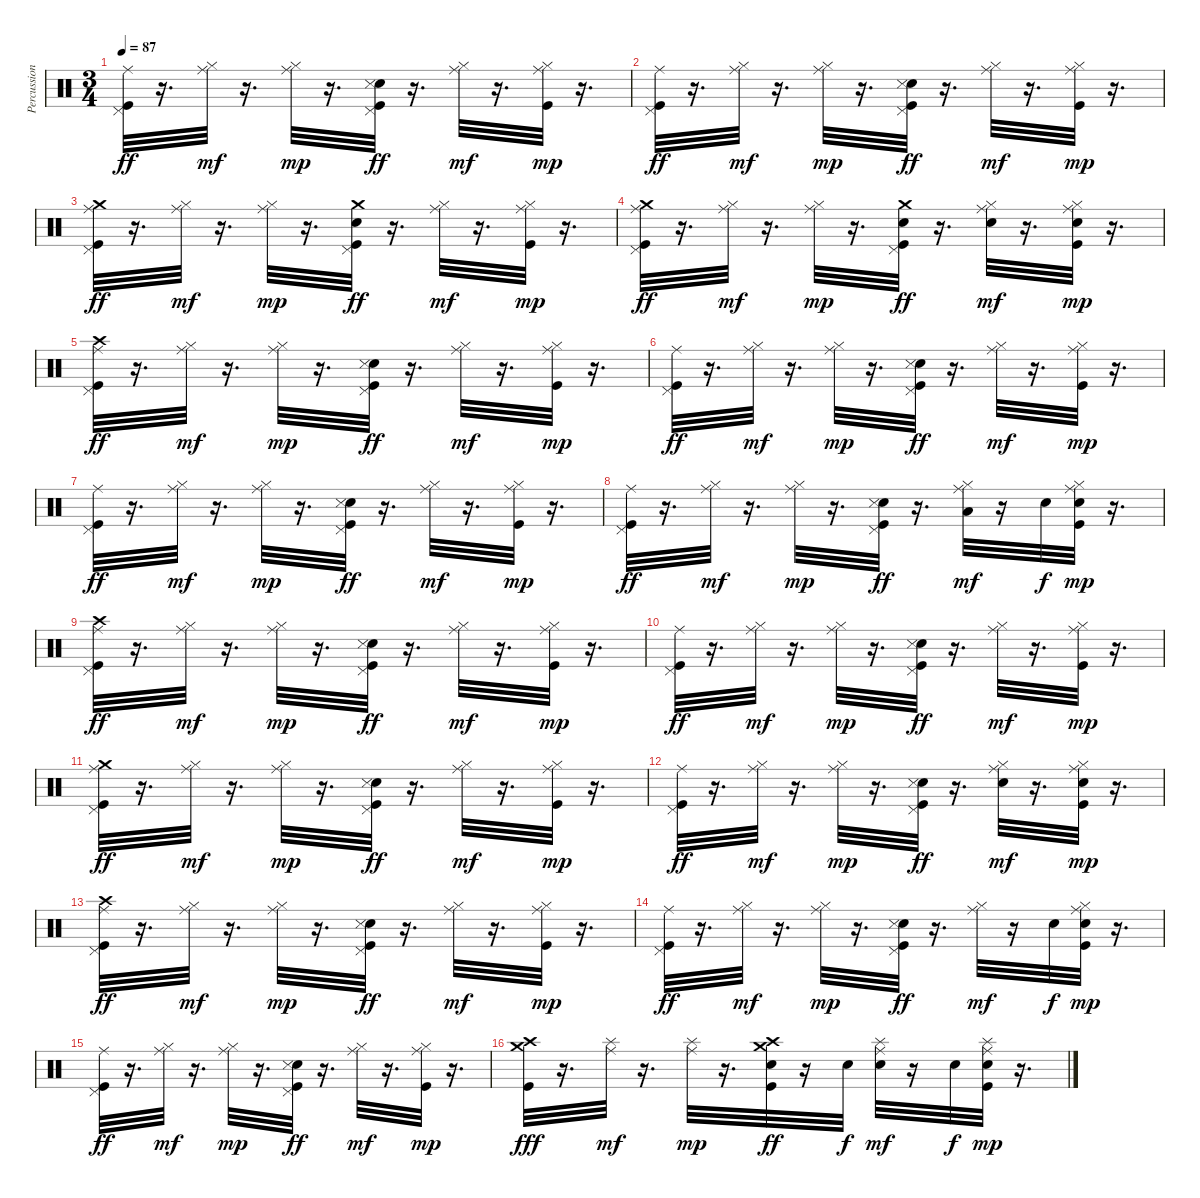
\track ("Percussion" "Percussion") {instrument percussion}
\staff {score}
\articulation defaults
\ts (3 4)
\tempo 87
\clef neutral
\ks c
("Kick (hit)" "Ride (middle)" "Pedal Hi-Hat (hit)").32{dy ff} r.16{d} ("Hi-Hat (closed)" "Ride (middle)").32{dy mf} r.16{d} ("Hi-Hat (closed)" "Ride (middle)").32{dy mp} r.16{d} ("Kick (hit)" "Pedal Hi-Hat (hit)" "Electric Snare (hit)" "Snare (side stick) 3").32{dy ff} r.16{d} ("Hi-Hat (closed)" "Ride (middle)").32{dy mf} r.16{d} ("Hi-Hat (closed)" "Ride (middle)" "Kick (hit)").32{dy mp} r.16{d} |
("Kick (hit)" "Ride (middle)" "Pedal Hi-Hat (hit)").32{dy ff} r.16{d} ("Hi-Hat (closed)" "Ride (middle)").32{dy mf} r.16{d} ("Hi-Hat (closed)" "Ride (middle)").32{dy mp} r.16{d} ("Kick (hit)" "Pedal Hi-Hat (hit)" "Electric Snare (hit)" "Snare (side stick) 3").32{dy ff} r.16{d} ("Hi-Hat (closed)" "Ride (middle)").32{dy mf} r.16{d} ("Hi-Hat (closed)" "Ride (middle)" "Kick (hit)").32{dy mp} r.16{d} |
("Kick (hit)" "Ride (middle)" "Pedal Hi-Hat (hit)" "Crash medium (hit)").32{dy ff} r.16{d} ("Hi-Hat (closed)" "Ride (middle)").32{dy mf} r.16{d} ("Hi-Hat (closed)" "Ride (middle)").32{dy mp} r.16{d} ("Kick (hit)" "Pedal Hi-Hat (hit)" "Electric Snare (hit)" "Crash medium (hit)").32{dy ff} r.16{d} ("Hi-Hat (closed)" "Ride (middle)").32{dy mf} r.16{d} ("Hi-Hat (closed)" "Ride (middle)" "Kick (hit)").32{dy mp} r.16{d} |
("Kick (hit)" "Ride (middle)" "Pedal Hi-Hat (hit)" "Crash medium (hit)").32{dy ff} r.16{d} ("Hi-Hat (closed)" "Ride (middle)").32{dy mf} r.16{d} ("Hi-Hat (closed)" "Ride (middle)").32{dy mp} r.16{d} ("Kick (hit)" "Pedal Hi-Hat (hit)" "Electric Snare (hit)" "Crash medium (hit)").32{dy ff} r.16{d} ("Hi-Hat (closed)" "Ride (middle)" "Electric Snare (hit)").32{dy mf} r.16{d} ("Hi-Hat (closed)" "Ride (middle)" "Electric Snare (hit)" "Kick (hit)").32{dy mp} r.16{d} |
("Kick (hit)" "Ride (middle)" "Pedal Hi-Hat (hit)" "Crash high (hit)").32{dy ff} r.16{d} ("Hi-Hat (closed)" "Ride (middle)").32{dy mf} r.16{d} ("Hi-Hat (closed)" "Ride (middle)").32{dy mp} r.16{d} ("Kick (hit)" "Pedal Hi-Hat (hit)" "Electric Snare (hit)" "Snare (side stick) 3").32{dy ff} r.16{d} ("Hi-Hat (closed)" "Ride (middle)").32{dy mf} r.16{d} ("Hi-Hat (closed)" "Ride (middle)" "Kick (hit)").32{dy mp} r.16{d} |
("Kick (hit)" "Ride (middle)" "Pedal Hi-Hat (hit)").32{dy ff} r.16{d} ("Hi-Hat (closed)" "Ride (middle)").32{dy mf} r.16{d} ("Hi-Hat (closed)" "Ride (middle)").32{dy mp} r.16{d} ("Kick (hit)" "Pedal Hi-Hat (hit)" "Electric Snare (hit)" "Snare (side stick) 3").32{dy ff} r.16{d} ("Hi-Hat (closed)" "Ride (middle)").32{dy mf} r.16{d} ("Hi-Hat (closed)" "Ride (middle)" "Kick (hit)").32{dy mp} r.16{d} |
("Kick (hit)" "Ride (middle)" "Pedal Hi-Hat (hit)").32{dy ff} r.16{d} ("Hi-Hat (closed)" "Ride (middle)").32{dy mf} r.16{d} ("Hi-Hat (closed)" "Ride (middle)").32{dy mp} r.16{d} ("Kick (hit)" "Pedal Hi-Hat (hit)" "Electric Snare (hit)" "Snare (side stick) 3").32{dy ff} r.16{d} ("Hi-Hat (closed)" "Ride (middle)").32{dy mf} r.16{d} ("Hi-Hat (closed)" "Ride (middle)" "Kick (hit)").32{dy mp} r.16{d} |
("Kick (hit)" "Ride (middle)" "Pedal Hi-Hat (hit)").32{dy ff} r.16{d} ("Hi-Hat (closed)" "Ride (middle)").32{dy mf} r.16{d} ("Hi-Hat (closed)" "Ride (middle)").32{dy mp} r.16{d} ("Kick (hit)" "Pedal Hi-Hat (hit)" "Electric Snare (hit)" "Snare (side stick) 3").32{dy ff} r.16{d} ("Hi-Hat (closed)" "Ride (middle)" "Low Tom (hit)").32{dy mf} r.16 "Electric Snare (hit)".32{dy f} ("Hi-Hat (closed)" "Ride (middle)" "Electric Snare (hit)" "Kick (hit)").32{dy mp} r.16{d} |
("Kick (hit)" "Ride (middle)" "Pedal Hi-Hat (hit)" "Crash high (hit)").32{dy ff} r.16{d} ("Hi-Hat (closed)" "Ride (middle)").32{dy mf} r.16{d} ("Hi-Hat (closed)" "Ride (middle)").32{dy mp} r.16{d} ("Kick (hit)" "Pedal Hi-Hat (hit)" "Electric Snare (hit)" "Snare (side stick) 3").32{dy ff} r.16{d} ("Hi-Hat (closed)" "Ride (middle)").32{dy mf} r.16{d} ("Hi-Hat (closed)" "Ride (middle)" "Kick (hit)").32{dy mp} r.16{d} |
("Kick (hit)" "Ride (middle)" "Pedal Hi-Hat (hit)").32{dy ff} r.16{d} ("Hi-Hat (closed)" "Ride (middle)").32{dy mf} r.16{d} ("Hi-Hat (closed)" "Ride (middle)").32{dy mp} r.16{d} ("Kick (hit)" "Pedal Hi-Hat (hit)" "Electric Snare (hit)" "Snare (side stick) 3").32{dy ff} r.16{d} ("Hi-Hat (closed)" "Ride (middle)").32{dy mf} r.16{d} ("Hi-Hat (closed)" "Ride (middle)" "Kick (hit)").32{dy mp} r.16{d} |
("Kick (hit)" "Ride (middle)" "Pedal Hi-Hat (hit)" "Crash medium (hit)").32{dy ff} r.16{d} ("Hi-Hat (closed)" "Ride (middle)").32{dy mf} r.16{d} ("Hi-Hat (closed)" "Ride (middle)").32{dy mp} r.16{d} ("Kick (hit)" "Pedal Hi-Hat (hit)" "Electric Snare (hit)" "Snare (side stick) 3").32{dy ff} r.16{d} ("Hi-Hat (closed)" "Ride (middle)").32{dy mf} r.16{d} ("Hi-Hat (closed)" "Ride (middle)" "Kick (hit)").32{dy mp} r.16{d} |
("Kick (hit)" "Ride (middle)" "Pedal Hi-Hat (hit)").32{dy ff} r.16{d} ("Hi-Hat (closed)" "Ride (middle)").32{dy mf} r.16{d} ("Hi-Hat (closed)" "Ride (middle)").32{dy mp} r.16{d} ("Kick (hit)" "Pedal Hi-Hat (hit)" "Electric Snare (hit)" "Snare (side stick) 3").32{dy ff} r.16{d} ("Hi-Hat (closed)" "Ride (middle)" "Electric Snare (hit)").32{dy mf} r.16{d} ("Hi-Hat (closed)" "Ride (middle)" "Electric Snare (hit)" "Kick (hit)").32{dy mp} r.16{d} |
("Kick (hit)" "Ride (middle)" "Pedal Hi-Hat (hit)" "Crash high (hit)").32{dy ff} r.16{d} ("Hi-Hat (closed)" "Ride (middle)").32{dy mf} r.16{d} ("Hi-Hat (closed)" "Ride (middle)").32{dy mp} r.16{d} ("Kick (hit)" "Pedal Hi-Hat (hit)" "Electric Snare (hit)" "Snare (side stick) 3").32{dy ff} r.16{d} ("Hi-Hat (closed)" "Ride (middle)").32{dy mf} r.16{d} ("Hi-Hat (closed)" "Ride (middle)" "Kick (hit)").32{dy mp} r.16{d} |
("Kick (hit)" "Ride (middle)" "Pedal Hi-Hat (hit)").32{dy ff} r.16{d} ("Hi-Hat (closed)" "Ride (middle)").32{dy mf} r.16{d} ("Hi-Hat (closed)" "Ride (middle)").32{dy mp} r.16{d} ("Kick (hit)" "Pedal Hi-Hat (hit)" "Electric Snare (hit)" "Snare (side stick) 3").32{dy ff} r.16{d} ("Hi-Hat (closed)" "Ride (middle)").32{dy mf} r.16 "Electric Snare (hit)".32{dy f} ("Hi-Hat (closed)" "Ride (middle)" "Electric Snare (hit)" "Kick (hit)").32{dy mp} r.16{d} |
("Kick (hit)" "Ride (middle)" "Pedal Hi-Hat (hit)").32{dy ff} r.16{d} ("Hi-Hat (closed)" "Ride (middle)").32{dy mf} r.16{d} ("Hi-Hat (closed)" "Ride (middle)").32{dy mp} r.16{d} ("Kick (hit)" "Pedal Hi-Hat (hit)" "Electric Snare (hit)" "Snare (side stick) 3").32{dy ff} r.16{d} ("Hi-Hat (closed)" "Ride (middle)").32{dy mf} r.16{d} ("Hi-Hat (closed)" "Ride (middle)" "Kick (hit)").32{dy mp} r.16{d} |
("Kick (hit)" "Crash high (hit)" "Crash medium (hit)").32{dy fff} r.16{d} ("Splash (hit)" "Ride (middle)").32{dy mf} r.16{d} ("Splash (hit)" "Ride (middle)").32{dy mp} r.16{d} ("Kick (hit)" "Crash medium (hit)" "Electric Snare (hit)" "Crash high (hit)").32{dy ff} r.16 "Electric Snare (hit)".32{dy f} ("Splash (hit)" "Ride (middle)" "Electric Snare (hit)").32{dy mf} r.16 "Electric Snare (hit)".32{dy f} ("Splash (hit)" "Ride (middle)" "Electric Snare (hit)" "Kick (hit)").32{dy mp} r.16{d}
